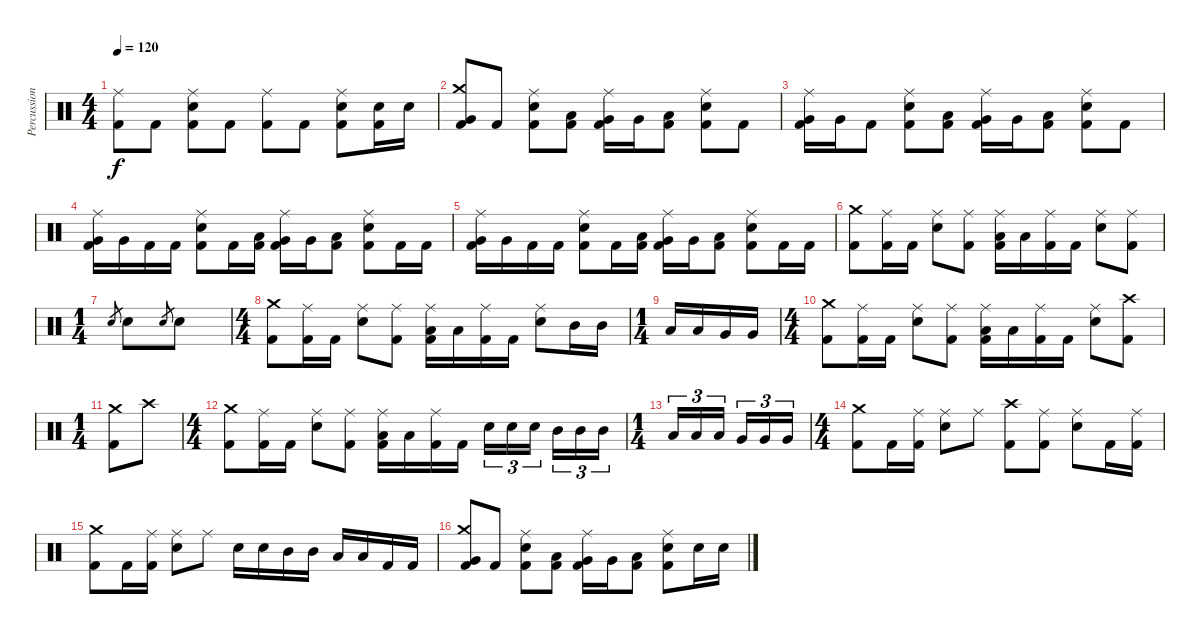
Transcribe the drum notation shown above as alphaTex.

\track ("Percussions" "Percussion") {instrument percussion}
\staff {score}
\articulation defaults
\ts (4 4)
\tempo 120
\clef neutral
\ks c
("Ride (middle)" "Kick (hit) 2").8{dy f} "Kick (hit) 2".8 ("Ride (middle)" "Electric Snare (hit)" "Kick (hit) 2").8 "Kick (hit) 2".8 ("Ride (middle)" "Kick (hit) 2").8 "Kick (hit) 2".8 ("Ride (middle)" "Electric Snare (hit)" "Kick (hit) 2").8 ("Electric Snare (hit)" "Kick (hit) 2").16 "Electric Snare (hit)".16 |
("Crash medium (hit)" "Very Low Tom (hit)" "Kick (hit) 2").8{volume 14} "Kick (hit) 2".8 ("Ride (middle)" "Electric Snare (hit)" "Kick (hit) 2").8 ("Low Tom (hit)" "Kick (hit) 2").8 ("Ride (middle)" "Very Low Tom (hit)" "Kick (hit) 2").16 "Very Low Tom (hit)".16 ("Low Floor Tom (hit)" "Kick (hit) 2").8 ("Ride (middle)" "Electric Snare (hit)" "Kick (hit) 2").8 "Kick (hit) 2".8 |
("Ride (middle)" "Very Low Tom (hit)" "Kick (hit) 2").16 "Very Low Tom (hit)".16 "Kick (hit) 2".8 ("Ride (middle)" "Electric Snare (hit)" "Kick (hit) 2").8 ("Low Tom (hit)" "Kick (hit) 2").8 ("Ride (middle)" "Very Low Tom (hit)" "Kick (hit) 2").16 "Very Low Tom (hit)".16 ("Low Floor Tom (hit)" "Kick (hit) 2").8 ("Ride (middle)" "Electric Snare (hit)" "Kick (hit) 2").8 "Kick (hit) 2".8 |
("Ride (middle)" "Very Low Tom (hit)" "Kick (hit) 2").16 "Very Low Tom (hit)".16 "Kick (hit) 2".16 "Kick (hit) 2".16 ("Ride (middle)" "Electric Snare (hit)" "Kick (hit) 2").8 "Kick (hit) 2".16 ("Low Tom (hit)" "Kick (hit) 2").16 ("Ride (middle)" "Very Low Tom (hit)" "Kick (hit) 2").16 "Very Low Tom (hit)".16 ("Low Floor Tom (hit)" "Kick (hit) 2").8 ("Ride (middle)" "Electric Snare (hit)" "Kick (hit) 2").8 "Kick (hit) 2".16 "Kick (hit) 2".16 |
("Ride (middle)" "Very Low Tom (hit)" "Kick (hit) 2").16 "Very Low Tom (hit)".16 "Kick (hit) 2".16 "Kick (hit) 2".16 ("Ride (middle)" "Electric Snare (hit)" "Kick (hit) 2").8 "Kick (hit) 2".16 ("Low Tom (hit)" "Kick (hit) 2").16 ("Ride (middle)" "Very Low Tom (hit)" "Kick (hit) 2").16 "Very Low Tom (hit)".16 ("Low Floor Tom (hit)" "Kick (hit) 2").8 ("Ride (middle)" "Electric Snare (hit)" "Kick (hit) 2").8 "Kick (hit) 2".16 "Kick (hit) 2".16 |
("Crash medium (hit)" "Kick (hit) 2").8 ("Ride (middle)" "Kick (hit) 2").16 "Kick (hit) 2".16 ("Ride (middle)" "Electric Snare (hit)").8 ("Ride (middle)" "Kick (hit) 2").8 ("Ride (middle)" "Low Tom (hit)" "Kick (hit) 2").16 "Low Tom (hit)".16 ("Ride (middle)" "Kick (hit) 2").16 "Kick (hit) 2".16 ("Ride (middle)" "Electric Snare (hit)").8 ("Ride (middle)" "Kick (hit) 2").8 |
\ts (1 4)
"Electric Snare (hit)".8{gr} "Electric Snare (hit)".8 "Electric Snare (hit)".8{gr} "Electric Snare (hit)".8 |
\ts (4 4)
("Crash medium (hit)" "Kick (hit) 2").8 ("Ride (middle)" "Kick (hit) 2").16 "Kick (hit) 2".16 ("Ride (middle)" "Electric Snare (hit)").8 ("Ride (middle)" "Kick (hit) 2").8 ("Ride (middle)" "Low Tom (hit)" "Kick (hit) 2").16 "Low Tom (hit)".16 ("Ride (middle)" "Kick (hit) 2").16 "Kick (hit) 2".16 ("Ride (middle)" "Electric Snare (hit)").8 "Mid Tom (hit)".16 "Mid Tom (hit)".16 |
\ts (1 4)
"Low Tom (hit)".16 "Low Tom (hit)".16 "Very Low Tom (hit)".16 "Very Low Tom (hit)".16 |
\ts (4 4)
("Crash medium (hit)" "Kick (hit) 2").8 ("Ride (middle)" "Kick (hit) 2").16 "Kick (hit) 2".16 ("Ride (middle)" "Electric Snare (hit)").8 ("Ride (middle)" "Kick (hit) 2").8 ("Ride (middle)" "Low Tom (hit)" "Kick (hit) 2").16 "Low Tom (hit)".16 ("Ride (middle)" "Kick (hit) 2").16 "Kick (hit) 2".16 ("Ride (middle)" "Electric Snare (hit)").8 ("Crash high (hit)" "Kick (hit) 2").8 |
\ts (1 4)
("Crash medium (hit)" "Kick (hit) 2").8 "Crash high (hit)".8 |
\ts (4 4)
("Crash medium (hit)" "Kick (hit) 2").8 ("Ride (middle)" "Kick (hit) 2").16 "Kick (hit) 2".16 ("Ride (middle)" "Electric Snare (hit)").8 ("Ride (middle)" "Kick (hit) 2").8 ("Ride (middle)" "Low Tom (hit)" "Kick (hit) 2").16 "Low Tom (hit)".16 ("Ride (middle)" "Kick (hit) 2").16 "Kick (hit) 2".16 "Electric Snare (hit)".16{tu (3 2)} "Electric Snare (hit)".16{tu (3 2)} "Electric Snare (hit)".16{tu (3 2)} "Mid Tom (hit)".16{tu (3 2)} "Mid Tom (hit)".16{tu (3 2)} "Mid Tom (hit)".16{tu (3 2)} |
\ts (1 4)
"Low Tom (hit)".16{tu (3 2)} "Low Tom (hit)".16{tu (3 2)} "Low Tom (hit)".16{tu (3 2)} "Very Low Tom (hit)".16{tu (3 2)} "Very Low Tom (hit)".16{tu (3 2)} "Very Low Tom (hit)".16{tu (3 2)} |
\ts (4 4)
("Crash medium (hit)" "Kick (hit) 2").8 "Kick (hit) 2".16 ("Ride (middle)" "Kick (hit) 2").16 ("Ride (middle)" "Electric Snare (hit)").8 "Ride (middle)".8 ("Crash high (hit)" "Kick (hit) 2").8 ("Ride (middle)" "Kick (hit) 2").8 ("Ride (middle)" "Electric Snare (hit)").8 "Kick (hit) 2".16 ("Ride (middle)" "Kick (hit) 2").16 |
("Crash medium (hit)" "Kick (hit) 2").8 "Kick (hit) 2".16 ("Ride (middle)" "Kick (hit) 2").16 ("Ride (middle)" "Electric Snare (hit)").8 "Ride (middle)".8 "Electric Snare (hit)".16 "Electric Snare (hit)".16 "Mid Tom (hit)".16 "Mid Tom (hit)".16 "Low Tom (hit)".16 "Low Tom (hit)".16 "Kick (hit) 2".16 "Kick (hit) 2".16 |
("Crash medium (hit)" "Very Low Tom (hit)" "Kick (hit) 2").8{volume 14} "Kick (hit) 2".8 ("Ride (middle)" "Electric Snare (hit)" "Kick (hit) 2").8 ("Low Tom (hit)" "Kick (hit) 2").8 ("Ride (middle)" "Very Low Tom (hit)" "Kick (hit) 2").16 "Very Low Tom (hit)".16 ("Low Floor Tom (hit)" "Kick (hit) 2").8 ("Ride (middle)" "Electric Snare (hit)" "Kick (hit) 2").8 "Electric Snare (hit)".16 "Electric Snare (hit)".16
